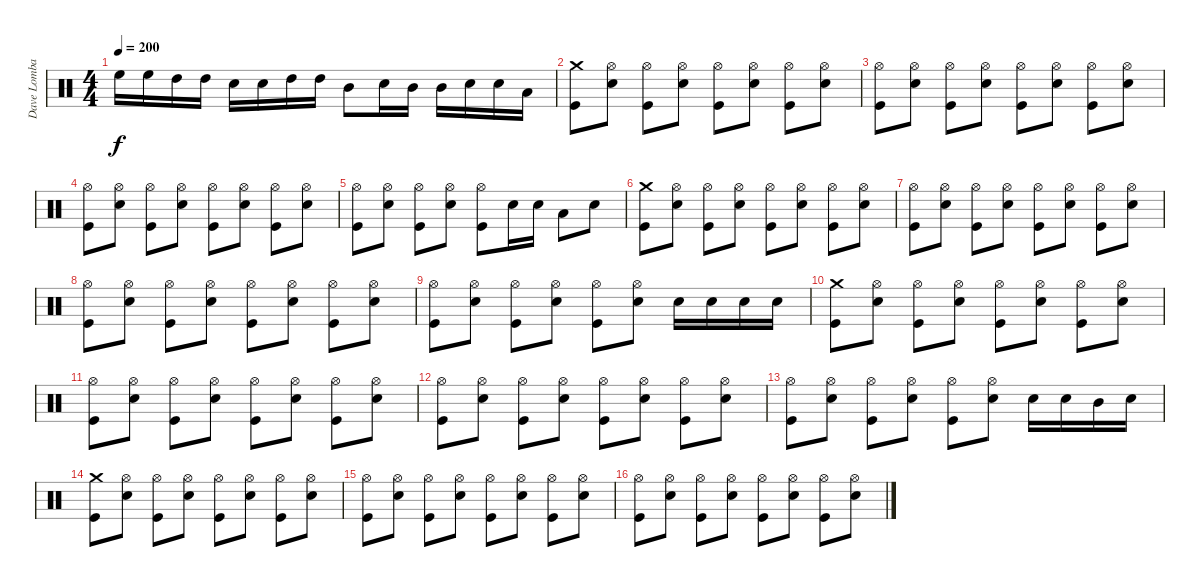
\track ("Dave Lombardo" "Dave Lomba") {instrument percussion}
\staff {score}
\articulation defaults
\ts (4 4)
\tempo 200
\clef neutral
\ks c "High Floor Tom (hit)".16{dy f} "High Floor Tom (hit)".16 "High Tom (hit)".16 "High Tom (hit)".16 "Snare (hit) 2".16 "Snare (hit) 2".16 "High Tom (hit)".16 "High Tom (hit)".16 "Mid Tom (hit)".8 "Snare (hit) 2".16 "Mid Tom (hit)".16 "Mid Tom (hit)".16 "Snare (hit) 2".16 "Snare (hit) 2".16 "Low Tom (hit)".16
|
("Crash medium (hit)" "Kick (hit)").8 ("Hi-Hat (open)" "Snare (hit) 2").8 ("Hi-Hat (open)" "Kick (hit)").8 ("Hi-Hat (open)" "Snare (hit) 2").8 ("Hi-Hat (open)" "Kick (hit)").8 ("Hi-Hat (open)" "Snare (hit) 2").8 ("Hi-Hat (open)" "Kick (hit)").8 ("Hi-Hat (open)" "Snare (hit) 2").8 |
("Hi-Hat (open)" "Kick (hit)").8 ("Hi-Hat (open)" "Snare (hit) 2").8 ("Hi-Hat (open)" "Kick (hit)").8 ("Hi-Hat (open)" "Snare (hit) 2").8 ("Hi-Hat (open)" "Kick (hit)").8 ("Hi-Hat (open)" "Snare (hit) 2").8 ("Hi-Hat (open)" "Kick (hit)").8 ("Hi-Hat (open)" "Snare (hit) 2").8 |
("Hi-Hat (open)" "Kick (hit)").8 ("Hi-Hat (open)" "Snare (hit) 2").8 ("Hi-Hat (open)" "Kick (hit)").8 ("Hi-Hat (open)" "Snare (hit) 2").8 ("Hi-Hat (open)" "Kick (hit)").8 ("Hi-Hat (open)" "Snare (hit) 2").8 ("Hi-Hat (open)" "Kick (hit)").8 ("Hi-Hat (open)" "Snare (hit) 2").8 |
("Hi-Hat (open)" "Kick (hit)").8 ("Hi-Hat (open)" "Snare (hit) 2").8 ("Hi-Hat (open)" "Kick (hit)").8 ("Hi-Hat (open)" "Snare (hit) 2").8 ("Hi-Hat (open)" "Kick (hit)").8 "Snare (hit) 2".16 "Snare (hit) 2".16 "Low Tom (hit)".8 "Snare (hit) 2".8 |
("Crash medium (hit)" "Kick (hit)").8 ("Hi-Hat (open)" "Snare (hit) 2").8 ("Hi-Hat (open)" "Kick (hit)").8 ("Hi-Hat (open)" "Snare (hit) 2").8 ("Hi-Hat (open)" "Kick (hit)").8 ("Hi-Hat (open)" "Snare (hit) 2").8 ("Hi-Hat (open)" "Kick (hit)").8 ("Hi-Hat (open)" "Snare (hit) 2").8 |
("Hi-Hat (open)" "Kick (hit)").8 ("Hi-Hat (open)" "Snare (hit) 2").8 ("Hi-Hat (open)" "Kick (hit)").8 ("Hi-Hat (open)" "Snare (hit) 2").8 ("Hi-Hat (open)" "Kick (hit)").8 ("Hi-Hat (open)" "Snare (hit) 2").8 ("Hi-Hat (open)" "Kick (hit)").8 ("Hi-Hat (open)" "Snare (hit) 2").8 |
("Hi-Hat (open)" "Kick (hit)").8 ("Hi-Hat (open)" "Snare (hit) 2").8 ("Hi-Hat (open)" "Kick (hit)").8 ("Hi-Hat (open)" "Snare (hit) 2").8 ("Hi-Hat (open)" "Kick (hit)").8 ("Hi-Hat (open)" "Snare (hit) 2").8 ("Hi-Hat (open)" "Kick (hit)").8 ("Hi-Hat (open)" "Snare (hit) 2").8 |
("Hi-Hat (open)" "Kick (hit)").8 ("Hi-Hat (open)" "Snare (hit) 2").8 ("Hi-Hat (open)" "Kick (hit)").8 ("Hi-Hat (open)" "Snare (hit) 2").8 ("Hi-Hat (open)" "Kick (hit)").8 ("Hi-Hat (open)" "Snare (hit) 2").8 "Snare (hit) 2".16 "Snare (hit) 2".16 "Snare (hit) 2".16 "Snare (hit) 2".16 |
("Crash medium (hit)" "Kick (hit)").8 ("Hi-Hat (open)" "Snare (hit) 2").8 ("Hi-Hat (open)" "Kick (hit)").8 ("Hi-Hat (open)" "Snare (hit) 2").8 ("Hi-Hat (open)" "Kick (hit)").8 ("Hi-Hat (open)" "Snare (hit) 2").8 ("Hi-Hat (open)" "Kick (hit)").8 ("Hi-Hat (open)" "Snare (hit) 2").8 |
("Hi-Hat (open)" "Kick (hit)").8 ("Hi-Hat (open)" "Snare (hit) 2").8 ("Hi-Hat (open)" "Kick (hit)").8 ("Hi-Hat (open)" "Snare (hit) 2").8 ("Hi-Hat (open)" "Kick (hit)").8 ("Hi-Hat (open)" "Snare (hit) 2").8 ("Hi-Hat (open)" "Kick (hit)").8 ("Hi-Hat (open)" "Snare (hit) 2").8 |
("Hi-Hat (open)" "Kick (hit)").8 ("Hi-Hat (open)" "Snare (hit) 2").8 ("Hi-Hat (open)" "Kick (hit)").8 ("Hi-Hat (open)" "Snare (hit) 2").8 ("Hi-Hat (open)" "Kick (hit)").8 ("Hi-Hat (open)" "Snare (hit) 2").8 ("Hi-Hat (open)" "Kick (hit)").8 ("Hi-Hat (open)" "Snare (hit) 2").8 |
("Hi-Hat (open)" "Kick (hit)").8 ("Hi-Hat (open)" "Snare (hit) 2").8 ("Hi-Hat (open)" "Kick (hit)").8 ("Hi-Hat (open)" "Snare (hit) 2").8 ("Hi-Hat (open)" "Kick (hit)").8 ("Hi-Hat (open)" "Snare (hit) 2").8 "Snare (hit) 2".16 "Snare (hit) 2".16 "Mid Tom (hit)".16 "Snare (hit) 2".16 |
("Crash medium (hit)" "Kick (hit)").8 ("Hi-Hat (open)" "Snare (hit) 2").8 ("Hi-Hat (open)" "Kick (hit)").8 ("Hi-Hat (open)" "Snare (hit) 2").8 ("Hi-Hat (open)" "Kick (hit)").8 ("Hi-Hat (open)" "Snare (hit) 2").8 ("Hi-Hat (open)" "Kick (hit)").8 ("Hi-Hat (open)" "Snare (hit) 2").8 |
("Hi-Hat (open)" "Kick (hit)").8 ("Hi-Hat (open)" "Snare (hit) 2").8 ("Hi-Hat (open)" "Kick (hit)").8 ("Hi-Hat (open)" "Snare (hit) 2").8 ("Hi-Hat (open)" "Kick (hit)").8 ("Hi-Hat (open)" "Snare (hit) 2").8 ("Hi-Hat (open)" "Kick (hit)").8 ("Hi-Hat (open)" "Snare (hit) 2").8 |
("Hi-Hat (open)" "Kick (hit)").8 ("Hi-Hat (open)" "Snare (hit) 2").8 ("Hi-Hat (open)" "Kick (hit)").8 ("Hi-Hat (open)" "Snare (hit) 2").8 ("Hi-Hat (open)" "Kick (hit)").8 ("Hi-Hat (open)" "Snare (hit) 2").8 ("Hi-Hat (open)" "Kick (hit)").8 ("Hi-Hat (open)" "Snare (hit) 2").8
